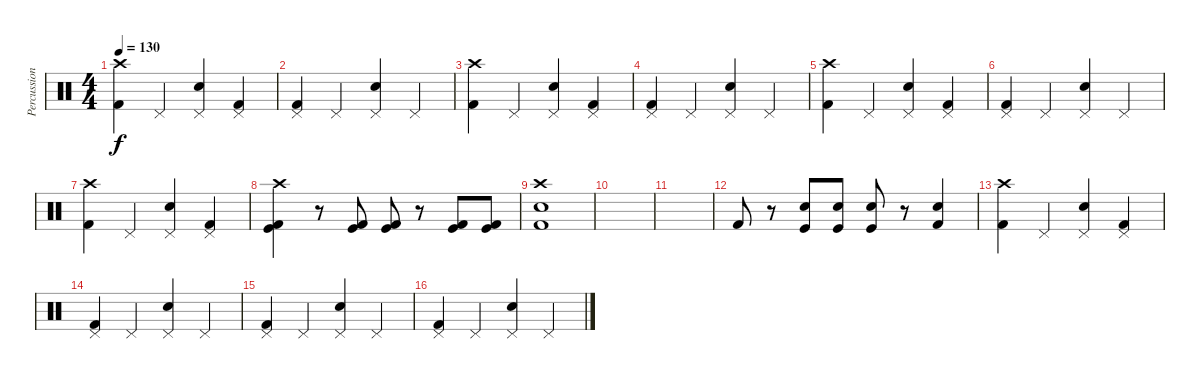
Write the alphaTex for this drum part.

\track ("Percussions" "Percussion") {instrument percussion}
\staff {score}
\articulation defaults
\ts (4 4)
\tempo 130
\clef neutral
\ks c
("Crash high (hit)" "Kick (hit) 2").4{dy f} "Pedal Hi-Hat (hit)".4 ("Pedal Hi-Hat (hit)" "Snare (hit) 2").4 ("Pedal Hi-Hat (hit)" "Kick (hit) 2").4 |
("Pedal Hi-Hat (hit)" "Kick (hit) 2").4 "Pedal Hi-Hat (hit)".4 ("Pedal Hi-Hat (hit)" "Snare (hit) 2").4 "Pedal Hi-Hat (hit)".4 |
("Crash high (hit)" "Kick (hit) 2").4 "Pedal Hi-Hat (hit)".4 ("Pedal Hi-Hat (hit)" "Snare (hit) 2").4 ("Pedal Hi-Hat (hit)" "Kick (hit) 2").4 |
("Pedal Hi-Hat (hit)" "Kick (hit) 2").4 "Pedal Hi-Hat (hit)".4 ("Pedal Hi-Hat (hit)" "Snare (hit) 2").4 "Pedal Hi-Hat (hit)".4 |
("Crash high (hit)" "Kick (hit) 2").4 "Pedal Hi-Hat (hit)".4 ("Pedal Hi-Hat (hit)" "Snare (hit) 2").4 ("Pedal Hi-Hat (hit)" "Kick (hit) 2").4 |
("Pedal Hi-Hat (hit)" "Kick (hit) 2").4 "Pedal Hi-Hat (hit)".4 ("Pedal Hi-Hat (hit)" "Snare (hit) 2").4 "Pedal Hi-Hat (hit)".4 |
("Crash high (hit)" "Kick (hit) 2").4 "Pedal Hi-Hat (hit)".4 ("Pedal Hi-Hat (hit)" "Snare (hit) 2").4 ("Pedal Hi-Hat (hit)" "Kick (hit) 2").4 |
("Crash high (hit)" "Kick (hit)" "Kick (hit) 2").4 r.8 ("Kick (hit)" "Kick (hit) 2").8 ("Kick (hit)" "Kick (hit) 2").8 r.8 ("Kick (hit)" "Kick (hit) 2").8 ("Kick (hit)" "Kick (hit) 2").8 |
("Crash high (hit)" "Snare (hit) 2" "Kick (hit) 2").1 |
|
|
"Kick (hit) 2".8 r.8 ("Snare (hit) 2" "Kick (hit)").8 ("Snare (hit) 2" "Kick (hit)").8 ("Snare (hit) 2" "Kick (hit)").8 r.8 ("Snare (hit) 2" "Kick (hit) 2").4 |
("Crash high (hit)" "Kick (hit) 2").4 "Pedal Hi-Hat (hit)".4 ("Pedal Hi-Hat (hit)" "Snare (hit) 2").4 ("Pedal Hi-Hat (hit)" "Kick (hit) 2").4 |
("Pedal Hi-Hat (hit)" "Kick (hit) 2").4 "Pedal Hi-Hat (hit)".4 ("Pedal Hi-Hat (hit)" "Snare (hit) 2").4 "Pedal Hi-Hat (hit)".4 |
("Pedal Hi-Hat (hit)" "Kick (hit) 2").4 "Pedal Hi-Hat (hit)".4 ("Pedal Hi-Hat (hit)" "Snare (hit) 2").4 "Pedal Hi-Hat (hit)".4 |
("Pedal Hi-Hat (hit)" "Kick (hit) 2").4 "Pedal Hi-Hat (hit)".4 ("Pedal Hi-Hat (hit)" "Snare (hit) 2").4 "Pedal Hi-Hat (hit)".4
